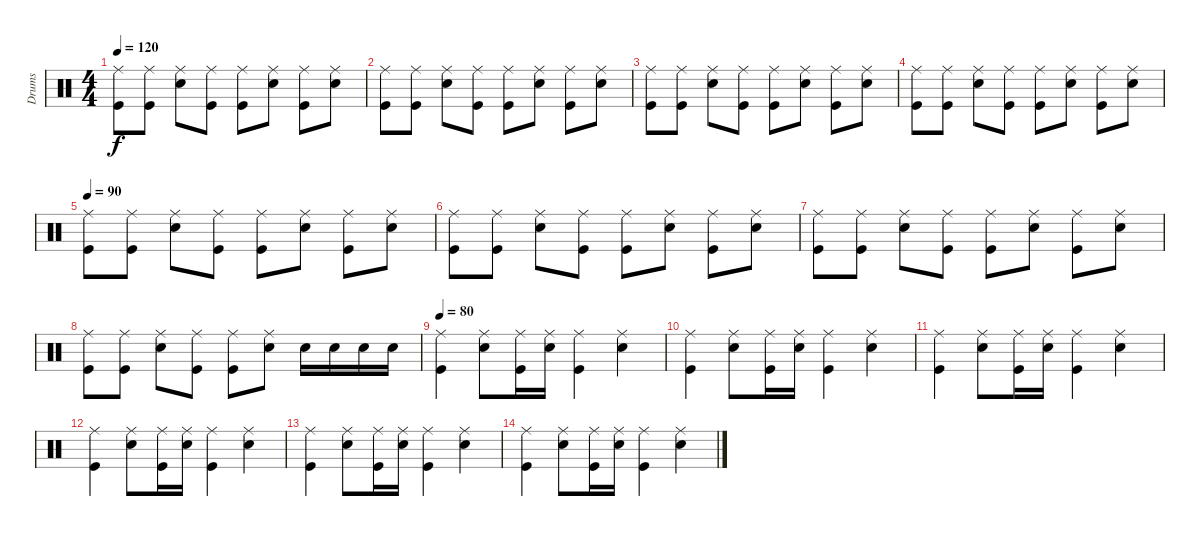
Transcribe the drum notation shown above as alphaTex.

\track ("Drums" "Drums") {instrument percussion}
\staff {score}
\articulation defaults
\ts (4 4)
\tempo 120
\clef neutral
\ks c
("Ride (middle)" "Kick (hit)").8{dy f} ("Ride (middle)" "Kick (hit)").8 ("Ride (middle)" "Electric Snare (hit)").8 ("Ride (middle)" "Kick (hit)").8 ("Ride (middle)" "Kick (hit)").8 ("Ride (middle)" "Electric Snare (hit)").8 ("Ride (middle)" "Kick (hit)").8 ("Ride (middle)" "Electric Snare (hit)").8 |
("Ride (middle)" "Kick (hit)").8 ("Ride (middle)" "Kick (hit)").8 ("Ride (middle)" "Electric Snare (hit)").8 ("Ride (middle)" "Kick (hit)").8 ("Ride (middle)" "Kick (hit)").8 ("Ride (middle)" "Electric Snare (hit)").8 ("Ride (middle)" "Kick (hit)").8 ("Ride (middle)" "Electric Snare (hit)").8 |
("Ride (middle)" "Kick (hit)").8 ("Ride (middle)" "Kick (hit)").8 ("Ride (middle)" "Electric Snare (hit)").8 ("Ride (middle)" "Kick (hit)").8 ("Ride (middle)" "Kick (hit)").8 ("Ride (middle)" "Electric Snare (hit)").8 ("Ride (middle)" "Kick (hit)").8 ("Ride (middle)" "Electric Snare (hit)").8 |
("Ride (middle)" "Kick (hit)").8 ("Ride (middle)" "Kick (hit)").8 ("Ride (middle)" "Electric Snare (hit)").8 ("Ride (middle)" "Kick (hit)").8 ("Ride (middle)" "Kick (hit)").8 ("Ride (middle)" "Electric Snare (hit)").8 ("Ride (middle)" "Kick (hit)").8 ("Ride (middle)" "Electric Snare (hit)").8 |
\tempo 90
("Ride (middle)" "Kick (hit)").8 ("Ride (middle)" "Kick (hit)").8 ("Ride (middle)" "Electric Snare (hit)").8 ("Ride (middle)" "Kick (hit)").8 ("Ride (middle)" "Kick (hit)").8 ("Ride (middle)" "Electric Snare (hit)").8 ("Ride (middle)" "Kick (hit)").8 ("Ride (middle)" "Electric Snare (hit)").8 |
("Ride (middle)" "Kick (hit)").8 ("Ride (middle)" "Kick (hit)").8 ("Ride (middle)" "Electric Snare (hit)").8 ("Ride (middle)" "Kick (hit)").8 ("Ride (middle)" "Kick (hit)").8 ("Ride (middle)" "Electric Snare (hit)").8 ("Ride (middle)" "Kick (hit)").8 ("Ride (middle)" "Electric Snare (hit)").8 |
("Ride (middle)" "Kick (hit)").8 ("Ride (middle)" "Kick (hit)").8 ("Ride (middle)" "Electric Snare (hit)").8 ("Ride (middle)" "Kick (hit)").8 ("Ride (middle)" "Kick (hit)").8 ("Ride (middle)" "Electric Snare (hit)").8 ("Ride (middle)" "Kick (hit)").8 ("Ride (middle)" "Electric Snare (hit)").8 |
("Ride (middle)" "Kick (hit)").8 ("Ride (middle)" "Kick (hit)").8 ("Ride (middle)" "Electric Snare (hit)").8 ("Ride (middle)" "Kick (hit)").8 ("Ride (middle)" "Kick (hit)").8 ("Ride (middle)" "Electric Snare (hit)").8 "Electric Snare (hit)".16 "Electric Snare (hit)".16 "Electric Snare (hit)".16 "Electric Snare (hit)".16 |
\tempo 80
("Ride (middle)" "Kick (hit)").4 ("Ride (middle)" "Electric Snare (hit)").8 ("Ride (middle)" "Kick (hit)").16 ("Ride (middle)" "Electric Snare (hit)").16 ("Ride (middle)" "Kick (hit)").4 ("Ride (middle)" "Electric Snare (hit)").4 |
("Ride (middle)" "Kick (hit)").4 ("Ride (middle)" "Electric Snare (hit)").8 ("Ride (middle)" "Kick (hit)").16 ("Ride (middle)" "Electric Snare (hit)").16 ("Ride (middle)" "Kick (hit)").4 ("Ride (middle)" "Electric Snare (hit)").4 |
("Ride (middle)" "Kick (hit)").4 ("Ride (middle)" "Electric Snare (hit)").8 ("Ride (middle)" "Kick (hit)").16 ("Ride (middle)" "Electric Snare (hit)").16 ("Ride (middle)" "Kick (hit)").4 ("Ride (middle)" "Electric Snare (hit)").4 |
("Ride (middle)" "Kick (hit)").4 ("Ride (middle)" "Electric Snare (hit)").8 ("Ride (middle)" "Kick (hit)").16 ("Ride (middle)" "Electric Snare (hit)").16 ("Ride (middle)" "Kick (hit)").4 ("Ride (middle)" "Electric Snare (hit)").4 |
("Ride (middle)" "Kick (hit)").4 ("Ride (middle)" "Electric Snare (hit)").8 ("Ride (middle)" "Kick (hit)").16 ("Ride (middle)" "Electric Snare (hit)").16 ("Ride (middle)" "Kick (hit)").4 ("Ride (middle)" "Electric Snare (hit)").4 |
("Ride (middle)" "Kick (hit)").4 ("Ride (middle)" "Electric Snare (hit)").8 ("Ride (middle)" "Kick (hit)").16 ("Ride (middle)" "Electric Snare (hit)").16 ("Ride (middle)" "Kick (hit)").4 ("Ride (middle)" "Electric Snare (hit)").4
